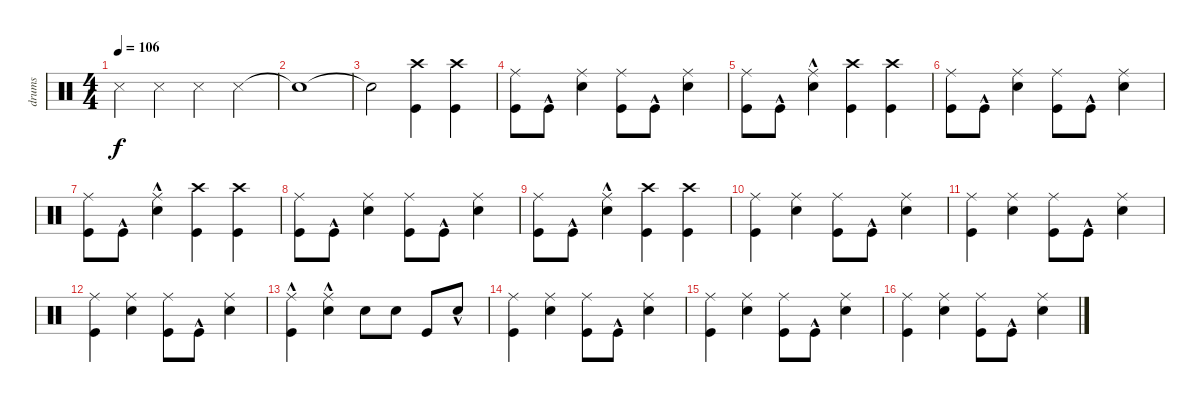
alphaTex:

\track ("drums" "drums") {instrument percussion}
\staff {score}
\articulation defaults
\ts (4 4)
\tempo 106
\clef neutral
\ks c "Snare (side stick) 3".4{dy f} "Snare (side stick) 3".4 "Snare (side stick) 3".4 "Snare (side stick) 3".4
|
"Snare (hit)"{t}.1 |
"Snare (hit)"{t}.2 ("Kick (hit)" "Crash high (hit)").4 ("Kick (hit)" "Crash high (hit)").4 |
("Kick (hit)" "Ride (middle)").8 "Kick (hit)"{hac}.8 ("Snare (hit) 2" "Ride (middle)").4 ("Kick (hit)" "Ride (middle)").8 "Kick (hit)"{hac}.8 ("Snare (hit) 2" "Ride (middle)").4 |
("Kick (hit)" "Ride (middle)").8 "Kick (hit)"{hac}.8 ("Snare (hit) 2" "Ride (middle)"{hac}).4 ("Kick (hit)" "Crash high (hit)").4 ("Kick (hit)" "Crash high (hit)").4 |
("Kick (hit)" "Ride (middle)").8 "Kick (hit)"{hac}.8 ("Snare (hit) 2" "Ride (middle)").4 ("Kick (hit)" "Ride (middle)").8 "Kick (hit)"{hac}.8 ("Snare (hit) 2" "Ride (middle)").4 |
("Kick (hit)" "Ride (middle)").8 "Kick (hit)"{hac}.8 ("Snare (hit) 2" "Ride (middle)"{hac}).4 ("Kick (hit)" "Crash high (hit)").4 ("Kick (hit)" "Crash high (hit)").4 |
("Kick (hit)" "Ride (middle)").8 "Kick (hit)"{hac}.8 ("Snare (hit) 2" "Ride (middle)").4 ("Kick (hit)" "Ride (middle)").8 "Kick (hit)"{hac}.8 ("Snare (hit) 2" "Ride (middle)").4 |
("Kick (hit)" "Ride (middle)").8 "Kick (hit)"{hac}.8 ("Snare (hit) 2" "Ride (middle)"{hac}).4 ("Kick (hit)" "Crash high (hit)").4 ("Kick (hit)" "Crash high (hit)").4 |
("Kick (hit)" "Ride (middle)").4 ("Snare (hit) 2" "Ride (middle)").4 ("Kick (hit)" "Ride (middle)").8 "Kick (hit)"{hac}.8 ("Snare (hit) 2" "Ride (middle)").4 |
("Kick (hit)" "Ride (middle)").4 ("Snare (hit) 2" "Ride (middle)").4 ("Kick (hit)" "Ride (middle)").8 "Kick (hit)"{hac}.8 ("Snare (hit) 2" "Ride (middle)").4 |
("Kick (hit)" "Ride (middle)").4 ("Snare (hit) 2" "Ride (middle)").4 ("Kick (hit)" "Ride (middle)").8 "Kick (hit)"{hac}.8 ("Snare (hit) 2" "Ride (middle)").4 |
("Kick (hit)"{hac} "Ride (middle)").4 ("Snare (hit) 2" "Ride (middle)"{hac}).4 "Snare (hit) 2".8 "Snare (hit) 2".8 "Kick (hit)".8 "Snare (hit) 2"{hac}.8 |
("Kick (hit)" "Ride (middle)").4 ("Snare (hit) 2" "Ride (middle)").4 ("Kick (hit)" "Ride (middle)").8 "Kick (hit)"{hac}.8 ("Snare (hit) 2" "Ride (middle)").4 |
("Kick (hit)" "Ride (middle)").4 ("Snare (hit) 2" "Ride (middle)").4 ("Kick (hit)" "Ride (middle)").8 "Kick (hit)"{hac}.8 ("Snare (hit) 2" "Ride (middle)").4 |
("Kick (hit)" "Ride (middle)").4 ("Snare (hit) 2" "Ride (middle)").4 ("Kick (hit)" "Ride (middle)").8 "Kick (hit)"{hac}.8 ("Snare (hit) 2" "Ride (middle)").4
